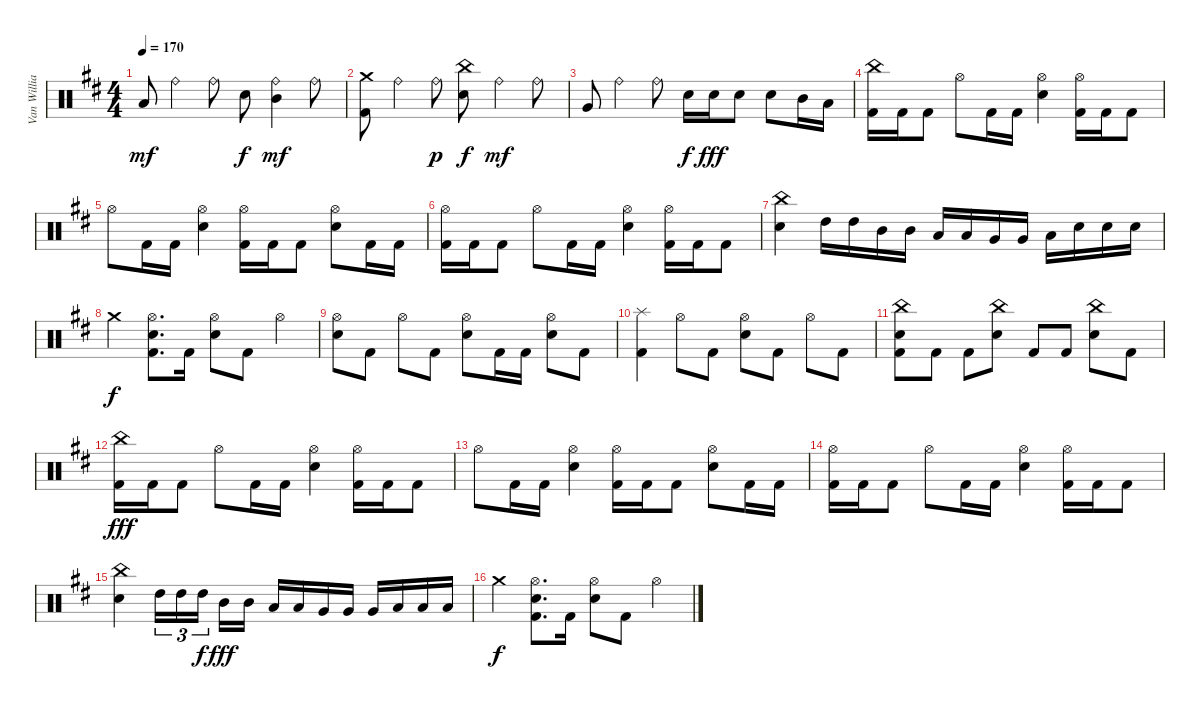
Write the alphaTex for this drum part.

\track ("Van Williams" "Van Willia") {instrument percussion}
\staff {score}
\articulation defaults
\ts (4 4)
\tempo 170
\clef neutral
\ks d "Low Tom (hit)".8{dy mf} "Ride (bell)".4 "Ride (bell)".8 "Electric Snare (hit)".8{dy f}
("Ride (bell)" "Mid Tom (hit)").4{dy mf} "Ride (bell)".8 |
("Crash medium (hit)" "Kick (hit) 2").8 "Ride (bell)".4 "Ride (bell)".8{dy p} ("China (hit)" "Electric Snare (hit)").8{dy f} "Ride (bell)".4{dy mf} "Ride (bell)".8 |
"Very Low Tom (hit)".8 "Ride (bell)".4 "Ride (bell)".8 "Electric Snare (hit)".16{dy f} "Electric Snare (hit)".16{dy fff} "Electric Snare (hit)".8 "Electric Snare (hit)".8 "Mid Tom (hit)".16 "Low Tom (hit)".16 |
("China (hit)" "Kick (hit) 2").16 "Kick (hit) 2".16 "Kick (hit) 2".8 "Hi-Hat (open)".8 "Kick (hit) 2".16 "Kick (hit) 2".16 ("Hi-Hat (open)" "Electric Snare (hit)").4 ("Hi-Hat (open)" "Kick (hit) 2").16 "Kick (hit) 2".16 "Kick (hit) 2".8 |
"Hi-Hat (open)".8 "Kick (hit) 2".16 "Kick (hit) 2".16 ("Hi-Hat (open)" "Electric Snare (hit)").4 ("Hi-Hat (open)" "Kick (hit) 2").16 "Kick (hit) 2".16 "Kick (hit) 2".8 ("Hi-Hat (open)" "Electric Snare (hit)").8 "Kick (hit) 2".16 "Kick (hit) 2".16 |
("Hi-Hat (open)" "Kick (hit) 2").16 "Kick (hit) 2".16 "Kick (hit) 2".8 "Hi-Hat (open)".8 "Kick (hit) 2".16 "Kick (hit) 2".16 ("Hi-Hat (open)" "Electric Snare (hit)").4 ("Hi-Hat (open)" "Kick (hit) 2").16 "Kick (hit) 2".16 "Kick (hit) 2".8 |
("China (hit)" "Electric Snare (hit)").4 "High Tom (hit)".16 "High Tom (hit)".16 "Mid Tom (hit)".16 "Mid Tom (hit)".16 "Low Tom (hit)".16 "Low Tom (hit)".16 "Very Low Tom (hit)".16 "Very Low Tom (hit)".16 "Low Floor Tom (hit)".16 "Electric Snare (hit)".16 "Electric Snare (hit)".16 "Electric Snare (hit)".16 |
"Crash medium (hit)".4{dy f} ("Hi-Hat (open)" "Electric Snare (hit)" "Kick (hit) 2").8{d} "Kick (hit) 2".16 ("Hi-Hat (open)" "Electric Snare (hit)").8 "Kick (hit) 2".8 "Hi-Hat (open)".4 |
("Hi-Hat (open)" "Electric Snare (hit)").8 "Kick (hit) 2".8 "Hi-Hat (open)".8 "Kick (hit) 2".8 ("Hi-Hat (open)" "Electric Snare (hit)").8 "Kick (hit) 2".16 "Kick (hit) 2".16 ("Hi-Hat (open)" "Electric Snare (hit)").8 "Kick (hit) 2".8 |
("Splash (hit)" "Kick (hit) 2").4 "Hi-Hat (open)".8 "Kick (hit) 2".8 ("Hi-Hat (open)" "Electric Snare (hit)").8 "Kick (hit) 2".8 "Hi-Hat (open)".8 "Kick (hit) 2".8 |
("China (hit)" "Electric Snare (hit)" "Kick (hit) 2").8 "Kick (hit) 2".8 "Kick (hit) 2".8 ("China (hit)" "Electric Snare (hit)").8 "Kick (hit) 2".8 "Kick (hit) 2".8 ("China (hit)" "Electric Snare (hit)").8 "Kick (hit) 2".8 |
("China (hit)" "Kick (hit) 2").16{dy fff} "Kick (hit) 2".16 "Kick (hit) 2".8 "Hi-Hat (open)".8 "Kick (hit) 2".16 "Kick (hit) 2".16 ("Hi-Hat (open)" "Electric Snare (hit)").4 ("Hi-Hat (open)" "Kick (hit) 2").16 "Kick (hit) 2".16 "Kick (hit) 2".8 |
"Hi-Hat (open)".8 "Kick (hit) 2".16 "Kick (hit) 2".16 ("Hi-Hat (open)" "Electric Snare (hit)").4 ("Hi-Hat (open)" "Kick (hit) 2").16 "Kick (hit) 2".16 "Kick (hit) 2".8 ("Hi-Hat (open)" "Electric Snare (hit)").8 "Kick (hit) 2".16 "Kick (hit) 2".16 |
("Hi-Hat (open)" "Kick (hit) 2").16 "Kick (hit) 2".16 "Kick (hit) 2".8 "Hi-Hat (open)".8 "Kick (hit) 2".16 "Kick (hit) 2".16 ("Hi-Hat (open)" "Electric Snare (hit)").4 ("Hi-Hat (open)" "Kick (hit) 2").16 "Kick (hit) 2".16 "Kick (hit) 2".8 |
("China (hit)" "Electric Snare (hit)").4 "High Tom (hit)".16{tu (3 2)} "High Tom (hit)".16{tu (3 2)} "High Tom (hit)".16{tu (3 2) dy f beam splitsecondary} "Mid Tom (hit)".16{dy fff} "Mid Tom (hit)".16 "Low Tom (hit)".16 "Low Tom (hit)".16 "Very Low Tom (hit)".16 "Very Low Tom (hit)".16 "Very Low Tom (hit)".16 "Low Floor Tom (hit)".16 "Low Floor Tom (hit)".16 "Low Floor Tom (hit)".16 |
"Crash medium (hit)".4{dy f} ("Hi-Hat (open)" "Electric Snare (hit)" "Kick (hit) 2").8{d} "Kick (hit) 2".16 ("Hi-Hat (open)" "Electric Snare (hit)").8 "Kick (hit) 2".8 "Hi-Hat (open)".4
